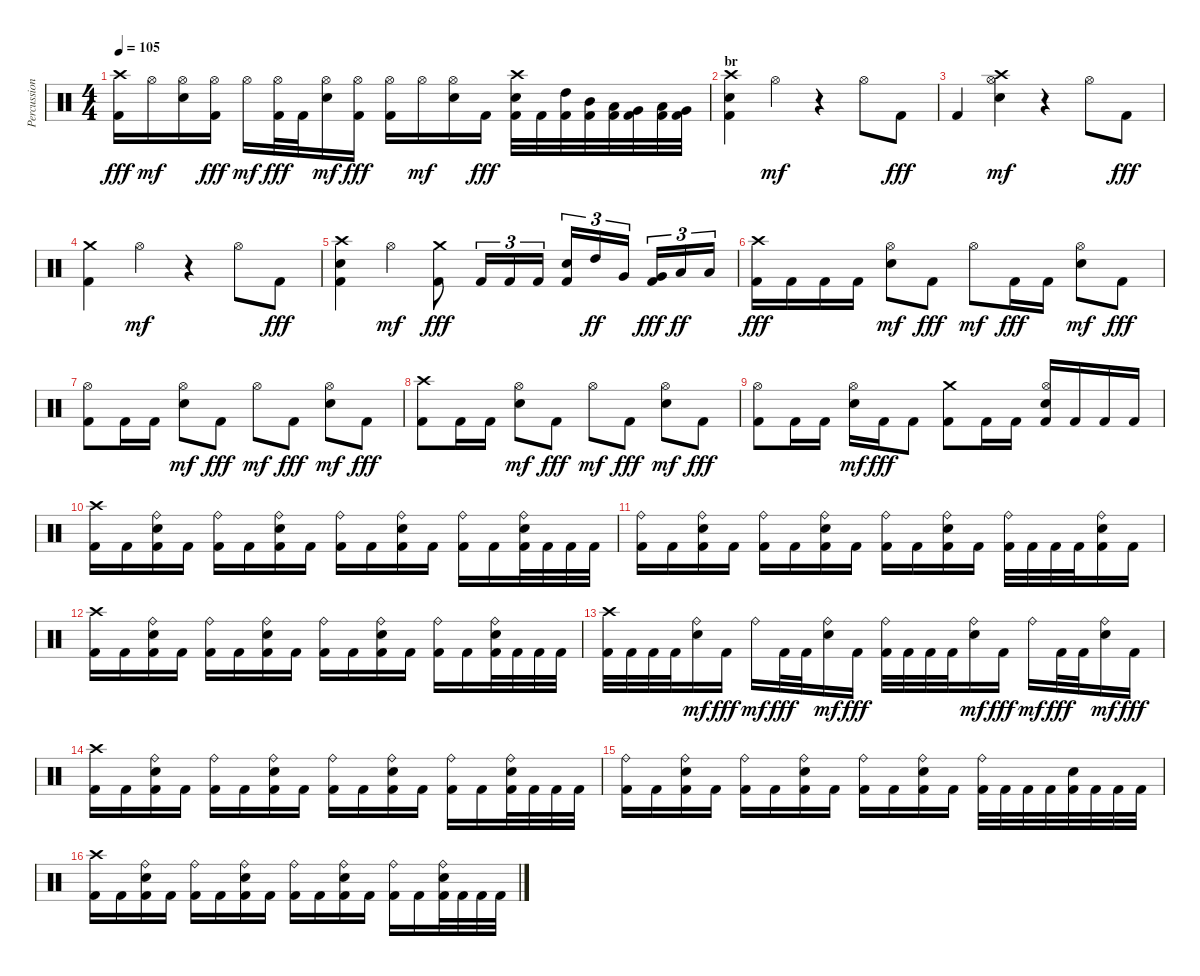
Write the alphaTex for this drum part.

\track ("Percussion" "Percussion") {instrument percussion}
\staff {score}
\articulation defaults
\ts (4 4)
\tempo 105
\clef neutral
\ks c
("Crash high (hit)" "Kick (hit) 2").16{dy fff} "Hi-Hat (open)".16{dy mf} ("Hi-Hat (open)" "Snare (hit) 2").16 ("Hi-Hat (open)" "Kick (hit) 2").16{dy fff} "Hi-Hat (open)".16{dy mf} ("Hi-Hat (open)" "Kick (hit) 2").32{dy fff} "Kick (hit) 2".32 ("Hi-Hat (open)" "Snare (hit) 2").16{dy mf} ("Hi-Hat (open)" "Kick (hit) 2").16{dy fff} ("Hi-Hat (open)" "Kick (hit) 2").16 "Hi-Hat (open)".16{dy mf} ("Hi-Hat (open)" "Snare (hit) 2").16 "Kick (hit) 2".16{dy fff} ("Crash high (hit)" "Snare (hit) 2" "Kick (hit) 2").32 "Kick (hit) 2".32 ("High Tom (hit)" "Kick (hit) 2").32 ("Mid Tom (hit)" "Kick (hit) 2").32 ("Low Tom (hit)" "Kick (hit) 2").32 ("Very Low Tom (hit)" "Kick (hit) 2").32 ("Low Tom (hit)" "Kick (hit) 2").32 ("Very Low Tom (hit)" "Kick (hit) 2").32 |
\section ("" "br")
("Crash high (hit)" "Snare (hit) 2" "Kick (hit) 2").4 "Hi-Hat (open)".4{dy mf} r.4 "Hi-Hat (open)".8 "Kick (hit) 2".8{dy fff} |
"Kick (hit) 2".4 ("Crash high (hit)" "Hi-Hat (open)" "Snare (hit) 2").4{dy mf} r.4 "Hi-Hat (open)".8 "Kick (hit) 2".8{dy fff} |
("Crash medium (hit)" "Kick (hit) 2").4 "Hi-Hat (open)".4{dy mf} r.4 "Hi-Hat (open)".8 "Kick (hit) 2".8{dy fff} |
("Crash high (hit)" "Snare (hit) 2" "Kick (hit) 2").4 "Hi-Hat (open)".4{dy mf} ("Crash medium (hit)" "Kick (hit) 2").8{dy fff} "Kick (hit) 2".16{tu (3 2)} "Kick (hit) 2".16{tu (3 2)} "Kick (hit) 2".16{tu (3 2)} ("Snare (hit) 2" "Kick (hit) 2").16{tu (3 2)} "High Tom (hit)".16{tu (3 2) dy ff} "Very Low Tom (hit)".16{tu (3 2)} ("Very Low Tom (hit)" "Kick (hit) 2").16{tu (3 2) dy fff} "Low Floor Tom (hit)".16{tu (3 2) dy ff} "Low Floor Tom (hit)".16{tu (3 2)} |
("Crash high (hit)" "Kick (hit) 2").16{dy fff} "Kick (hit) 2".16 "Kick (hit) 2".16 "Kick (hit) 2".16 ("Hi-Hat (open)" "Snare (hit) 2").8{dy mf} "Kick (hit) 2".8{dy fff} "Hi-Hat (open)".8{dy mf} "Kick (hit) 2".16{dy fff} "Kick (hit) 2".16 ("Hi-Hat (open)" "Snare (hit) 2").8{dy mf} "Kick (hit) 2".8{dy fff} |
("Hi-Hat (open)" "Kick (hit) 2").8 "Kick (hit) 2".16 "Kick (hit) 2".16 ("Hi-Hat (open)" "Snare (hit) 2").8{dy mf} "Kick (hit) 2".8{dy fff} "Hi-Hat (open)".8{dy mf} "Kick (hit) 2".8{dy fff} ("Hi-Hat (open)" "Snare (hit) 2").8{dy mf} "Kick (hit) 2".8{dy fff} |
("Crash high (hit)" "Kick (hit) 2").8 "Kick (hit) 2".16 "Kick (hit) 2".16 ("Hi-Hat (open)" "Snare (hit) 2").8{dy mf} "Kick (hit) 2".8{dy fff} "Hi-Hat (open)".8{dy mf} "Kick (hit) 2".8{dy fff} ("Hi-Hat (open)" "Snare (hit) 2").8{dy mf} "Kick (hit) 2".8{dy fff} |
("Hi-Hat (open)" "Kick (hit) 2").8 "Kick (hit) 2".16 "Kick (hit) 2".16 ("Hi-Hat (open)" "Snare (hit) 2").16{dy mf} "Kick (hit) 2".16{dy fff} "Kick (hit) 2".8 ("Crash medium (hit)" "Kick (hit) 2").8 "Kick (hit) 2".16 "Kick (hit) 2".16 ("Hi-Hat (open)" "Snare (hit) 2" "Kick (hit) 2").16 "Kick (hit) 2".16 "Kick (hit) 2".16 "Kick (hit) 2".16 |
\section ("" "")
("Crash high (hit)" "Kick (hit) 2").16 "Kick (hit) 2".16 ("Ride (bell)" "Snare (hit) 2" "Kick (hit) 2").16 "Kick (hit) 2".16 ("Ride (bell)" "Kick (hit) 2").16 "Kick (hit) 2".16 ("Ride (bell)" "Snare (hit) 2" "Kick (hit) 2").16 "Kick (hit) 2".16 ("Ride (bell)" "Kick (hit) 2").16 "Kick (hit) 2".16 ("Ride (bell)" "Snare (hit) 2" "Kick (hit) 2").16 "Kick (hit) 2".16 ("Ride (bell)" "Kick (hit) 2").16 "Kick (hit) 2".16 ("Ride (bell)" "Snare (hit) 2" "Kick (hit) 2").32 "Kick (hit) 2".32 "Kick (hit) 2".32 "Kick (hit) 2".32 |
("Ride (bell)" "Kick (hit) 2").16 "Kick (hit) 2".16 ("Ride (bell)" "Snare (hit) 2" "Kick (hit) 2").16 "Kick (hit) 2".16 ("Ride (bell)" "Kick (hit) 2").16 "Kick (hit) 2".16 ("Ride (bell)" "Snare (hit) 2" "Kick (hit) 2").16 "Kick (hit) 2".16 ("Ride (bell)" "Kick (hit) 2").16 "Kick (hit) 2".16 ("Ride (bell)" "Snare (hit) 2" "Kick (hit) 2").16 "Kick (hit) 2".16 ("Ride (bell)" "Kick (hit) 2").32 "Kick (hit) 2".32 "Kick (hit) 2".32 "Kick (hit) 2".32 ("Ride (bell)" "Snare (hit) 2" "Kick (hit) 2").16 "Kick (hit) 2".16 |
("Crash high (hit)" "Kick (hit) 2").16 "Kick (hit) 2".16 ("Ride (bell)" "Snare (hit) 2" "Kick (hit) 2").16 "Kick (hit) 2".16 ("Ride (bell)" "Kick (hit) 2").16 "Kick (hit) 2".16 ("Ride (bell)" "Snare (hit) 2" "Kick (hit) 2").16 "Kick (hit) 2".16 ("Ride (bell)" "Kick (hit) 2").16 "Kick (hit) 2".16 ("Ride (bell)" "Snare (hit) 2" "Kick (hit) 2").16 "Kick (hit) 2".16 ("Ride (bell)" "Kick (hit) 2").16 "Kick (hit) 2".16 ("Ride (bell)" "Snare (hit) 2" "Kick (hit) 2").32 "Kick (hit) 2".32 "Kick (hit) 2".32 "Kick (hit) 2".32 |
("Crash high (hit)" "Kick (hit) 2").32 "Kick (hit) 2".32 "Kick (hit) 2".32 "Kick (hit) 2".32 ("Ride (bell)" "Snare (hit) 2").16{dy mf} "Kick (hit) 2".16{dy fff} "Ride (bell)".16{dy mf} "Kick (hit) 2".32{dy fff} "Kick (hit) 2".32 ("Ride (bell)" "Snare (hit) 2").16{dy mf} "Kick (hit) 2".16{dy fff} ("Ride (bell)" "Kick (hit) 2").32 "Kick (hit) 2".32 "Kick (hit) 2".32 "Kick (hit) 2".32 ("Ride (bell)" "Snare (hit) 2").16{dy mf} "Kick (hit) 2".16{dy fff} "Ride (bell)".16{dy mf} "Kick (hit) 2".32{dy fff} "Kick (hit) 2".32 ("Ride (bell)" "Snare (hit) 2").16{dy mf} "Kick (hit) 2".16{dy fff} |
("Crash high (hit)" "Kick (hit) 2").16 "Kick (hit) 2".16 ("Ride (bell)" "Snare (hit) 2" "Kick (hit) 2").16 "Kick (hit) 2".16 ("Ride (bell)" "Kick (hit) 2").16 "Kick (hit) 2".16 ("Ride (bell)" "Snare (hit) 2" "Kick (hit) 2").16 "Kick (hit) 2".16 ("Ride (bell)" "Kick (hit) 2").16 "Kick (hit) 2".16 ("Ride (bell)" "Snare (hit) 2" "Kick (hit) 2").16 "Kick (hit) 2".16 ("Ride (bell)" "Kick (hit) 2").16 "Kick (hit) 2".16 ("Ride (bell)" "Snare (hit) 2" "Kick (hit) 2").32 "Kick (hit) 2".32 "Kick (hit) 2".32 "Kick (hit) 2".32 |
("Ride (bell)" "Kick (hit) 2").16 "Kick (hit) 2".16 ("Ride (bell)" "Snare (hit) 2" "Kick (hit) 2").16 "Kick (hit) 2".16 ("Ride (bell)" "Kick (hit) 2").16 "Kick (hit) 2".16 ("Ride (bell)" "Snare (hit) 2" "Kick (hit) 2").16 "Kick (hit) 2".16 ("Ride (bell)" "Kick (hit) 2").16 "Kick (hit) 2".16 ("Ride (bell)" "Snare (hit) 2" "Kick (hit) 2").16 "Kick (hit) 2".16 ("Ride (bell)" "Kick (hit) 2").32 "Kick (hit) 2".32 "Kick (hit) 2".32 "Kick (hit) 2".32 ("Snare (hit) 2" "Kick (hit) 2").32 "Kick (hit) 2".32 "Kick (hit) 2".32 "Kick (hit) 2".32 |
("Crash high (hit)" "Kick (hit) 2").16 "Kick (hit) 2".16 ("Ride (bell)" "Snare (hit) 2" "Kick (hit) 2").16 "Kick (hit) 2".16 ("Ride (bell)" "Kick (hit) 2").16 "Kick (hit) 2".16 ("Ride (bell)" "Snare (hit) 2" "Kick (hit) 2").16 "Kick (hit) 2".16 ("Ride (bell)" "Kick (hit) 2").16 "Kick (hit) 2".16 ("Ride (bell)" "Snare (hit) 2" "Kick (hit) 2").16 "Kick (hit) 2".16 ("Ride (bell)" "Kick (hit) 2").16 "Kick (hit) 2".16 ("Ride (bell)" "Snare (hit) 2" "Kick (hit) 2").32 "Kick (hit) 2".32 "Kick (hit) 2".32 "Kick (hit) 2".32
